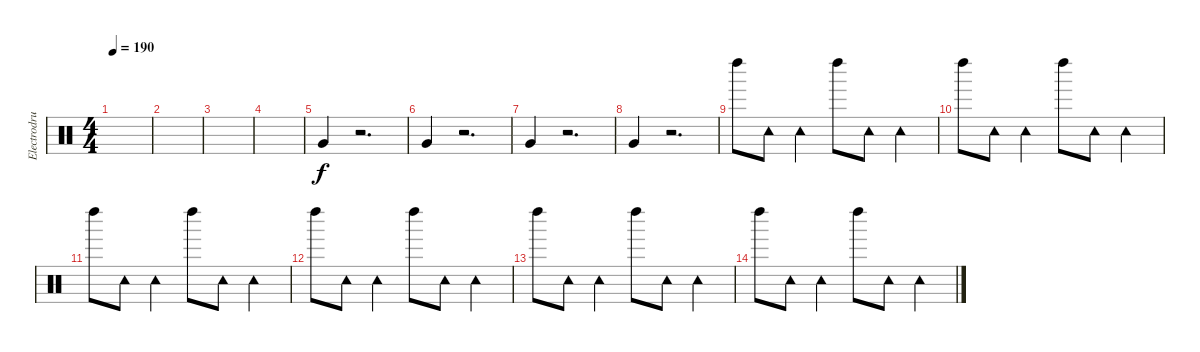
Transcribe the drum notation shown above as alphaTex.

\track ("Electrodrums2" "Electrodru") {instrument percussion}
\staff {score}
\articulation defaults
\ts (4 4)
\tempo 190
\clef neutral
\ks c
|
|
|
|
"Very Low Tom (hit)".4 r.2{d} |
"Very Low Tom (hit)".4 r.2{d} |
"Very Low Tom (hit)".4 r.2{d} |
"Very Low Tom (hit)".4 r.2{d} |
"Left Maraca (hit)".8 "Tambourine (hit)".8 "Tambourine (hit)".4 "Left Maraca (hit)".8 "Tambourine (hit)".8 "Tambourine (hit)".4 |
"Left Maraca (hit)".8 "Tambourine (hit)".8 "Tambourine (hit)".4 "Left Maraca (hit)".8 "Tambourine (hit)".8 "Tambourine (hit)".4 |
"Left Maraca (hit)".8 "Tambourine (hit)".8 "Tambourine (hit)".4 "Left Maraca (hit)".8 "Tambourine (hit)".8 "Tambourine (hit)".4 |
"Left Maraca (hit)".8 "Tambourine (hit)".8 "Tambourine (hit)".4 "Left Maraca (hit)".8 "Tambourine (hit)".8 "Tambourine (hit)".4 |
"Left Maraca (hit)".8 "Tambourine (hit)".8 "Tambourine (hit)".4 "Left Maraca (hit)".8 "Tambourine (hit)".8 "Tambourine (hit)".4 |
"Left Maraca (hit)".8 "Tambourine (hit)".8 "Tambourine (hit)".4 "Left Maraca (hit)".8 "Tambourine (hit)".8 "Tambourine (hit)".4
